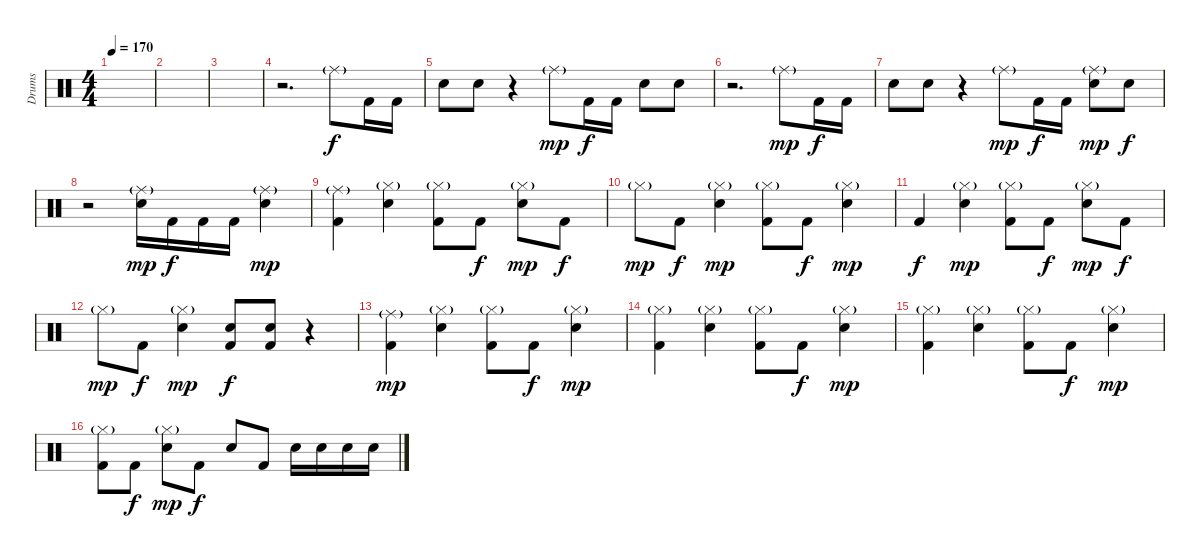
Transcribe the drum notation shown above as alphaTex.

\track ("Drums" "Drums") {instrument percussion}
\staff {score}
\articulation defaults
\ts (4 4)
\tempo 170
\clef neutral
\ks c
|
|
|
r.2{d} "Ride (middle)"{g}.8 "Kick (hit) 2".16{dy f} "Kick (hit) 2".16 |
"Electric Snare (hit)".8 "Electric Snare (hit)".8 r.4 "Ride (middle)"{g}.8{dy mp} "Kick (hit) 2".16{dy f} "Kick (hit) 2".16 "Electric Snare (hit)".8 "Electric Snare (hit)".8 |
r.2{d} "Ride (middle)"{g}.8{dy mp} "Kick (hit) 2".16{dy f} "Kick (hit) 2".16 |
"Electric Snare (hit)".8 "Electric Snare (hit)".8 r.4 "Ride (middle)"{g}.8{dy mp} "Kick (hit) 2".16{dy f} "Kick (hit) 2".16 ("Ride (middle)"{g} "Electric Snare (hit)").8{dy mp} "Electric Snare (hit)".8{dy f} |
r.2 ("Ride (middle)"{g} "Electric Snare (hit)").16{dy mp} "Kick (hit) 2".16{dy f} "Kick (hit) 2".16 "Kick (hit) 2".16 ("Ride (middle)"{g} "Electric Snare (hit)").4{dy mp} |
("Ride (middle)"{g} "Kick (hit) 2").4 ("Hi-Hat (closed)"{g} "Electric Snare (hit)").4 ("Hi-Hat (closed)"{g} "Kick (hit) 2").8 "Kick (hit) 2".8{dy f} ("Hi-Hat (closed)"{g} "Electric Snare (hit)").8{dy mp} "Kick (hit) 2".8{dy f} |
"Hi-Hat (closed)"{g}.8{dy mp} "Kick (hit) 2".8{dy f} ("Hi-Hat (closed)"{g} "Electric Snare (hit)").4{dy mp} ("Hi-Hat (closed)"{g} "Kick (hit) 2").8 "Kick (hit) 2".8{dy f} ("Hi-Hat (closed)"{g} "Electric Snare (hit)").4{dy mp} |
"Kick (hit) 2".4{dy f} ("Hi-Hat (closed)"{g} "Electric Snare (hit)").4{dy mp} ("Hi-Hat (closed)"{g} "Kick (hit) 2").8 "Kick (hit) 2".8{dy f} ("Hi-Hat (closed)"{g} "Electric Snare (hit)").8{dy mp} "Kick (hit) 2".8{dy f} |
"Hi-Hat (closed)"{g}.8{dy mp} "Kick (hit) 2".8{dy f} ("Hi-Hat (closed)"{g} "Electric Snare (hit)").4{dy mp} ("Electric Snare (hit)" "Kick (hit) 2").8{dy f} ("Electric Snare (hit)" "Kick (hit) 2").8 r.4 |
("Ride (middle)"{g} "Kick (hit) 2").4{dy mp} ("Hi-Hat (closed)"{g} "Electric Snare (hit)").4 ("Hi-Hat (closed)"{g} "Kick (hit) 2").8 "Kick (hit) 2".8{dy f} ("Hi-Hat (closed)"{g} "Electric Snare (hit)").4{dy mp} |
("Hi-Hat (closed)"{g} "Kick (hit) 2").4 ("Hi-Hat (closed)"{g} "Electric Snare (hit)").4 ("Hi-Hat (closed)"{g} "Kick (hit) 2").8 "Kick (hit) 2".8{dy f} ("Hi-Hat (closed)"{g} "Electric Snare (hit)").4{dy mp} |
("Hi-Hat (closed)"{g} "Kick (hit) 2").4 ("Hi-Hat (closed)"{g} "Electric Snare (hit)").4 ("Hi-Hat (closed)"{g} "Kick (hit) 2").8 "Kick (hit) 2".8{dy f} ("Hi-Hat (closed)"{g} "Electric Snare (hit)").4{dy mp} |
("Hi-Hat (closed)"{g} "Kick (hit) 2").8 "Kick (hit) 2".8{dy f} ("Hi-Hat (closed)"{g} "Electric Snare (hit)").8{dy mp} "Kick (hit) 2".8{dy f} "Electric Snare (hit)".8 "Kick (hit) 2".8 "Electric Snare (hit)".16 "Electric Snare (hit)".16 "Electric Snare (hit)".16 "Electric Snare (hit)".16
